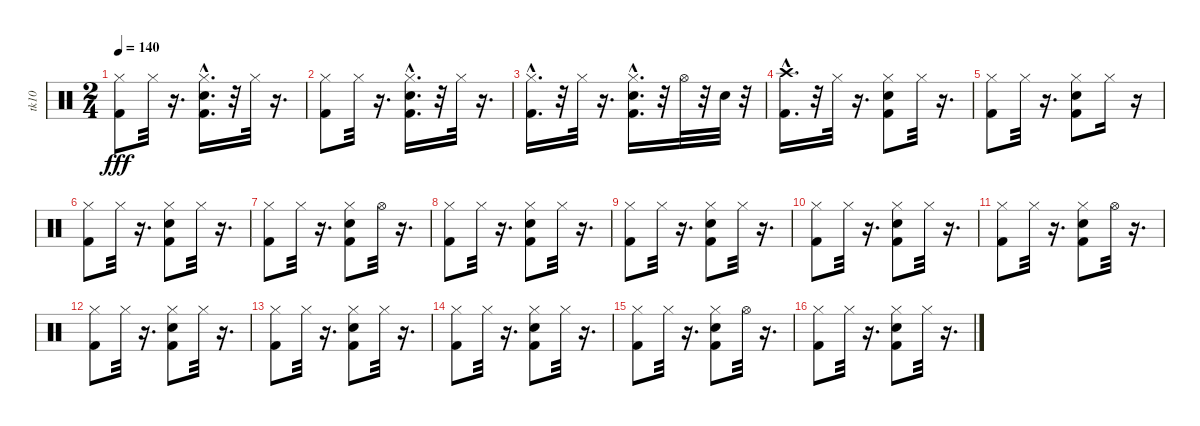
\track ("tk10" "tk10") {instrument percussion}
\staff {score}
\articulation defaults
\ts (2 4)
\tempo 140
\clef neutral
\ks c
("Kick (hit) 2" "Hi-Hat (closed)").8{dy fff} "Hi-Hat (closed)".32 r.16{d} ("Kick (hit) 2"{hac} "Hi-Hat (closed)" "Snare (hit) 2"{hac}).16{d} r.32 "Hi-Hat (closed)".32 r.16{d} |
("Kick (hit) 2" "Hi-Hat (closed)").8 "Hi-Hat (closed)".32 r.16{d} ("Kick (hit) 2"{hac} "Hi-Hat (closed)" "Snare (hit) 2"{hac}).16{d} r.32 "Hi-Hat (closed)".32 r.16{d} |
("Kick (hit) 2"{hac} "Hi-Hat (closed)").16{d} r.32 "Hi-Hat (closed)".32 r.16{d} ("Hi-Hat (closed)" "Snare (hit) 2"{hac} "Kick (hit) 2"{hac}).16{d} r.32 "Hi-Hat (open)".32 r.32 "Snare (hit) 2".32 r.32 |
("Kick (hit) 2"{hac} "Crash high (hit)").16{d} r.32 "Hi-Hat (closed)".32 r.16{d} ("Kick (hit) 2" "Snare (hit) 2" "Hi-Hat (closed)").8 "Hi-Hat (closed)".32 r.16{d} |
("Kick (hit) 2" "Hi-Hat (closed)").8 "Hi-Hat (closed)".32 r.16{d} ("Kick (hit) 2" "Hi-Hat (closed)" "Snare (hit) 2").8 "Hi-Hat (closed)".16 r.16 |
("Kick (hit) 2" "Hi-Hat (closed)").8 "Hi-Hat (closed)".32 r.16{d} ("Snare (hit) 2" "Kick (hit) 2" "Hi-Hat (closed)").8 "Hi-Hat (closed)".32 r.16{d} |
("Kick (hit) 2" "Hi-Hat (closed)").8 "Hi-Hat (closed)".32 r.16{d} ("Kick (hit) 2" "Snare (hit) 2" "Hi-Hat (closed)").8 "Hi-Hat (open)".32 r.16{d} |
("Kick (hit) 2" "Hi-Hat (closed)").8 "Hi-Hat (closed)".32 r.16{d} ("Snare (hit) 2" "Kick (hit) 2" "Hi-Hat (closed)").8 "Hi-Hat (closed)".32 r.16{d} |
("Kick (hit) 2" "Hi-Hat (closed)").8 "Hi-Hat (closed)".32 r.16{d} ("Snare (hit) 2" "Kick (hit) 2" "Hi-Hat (closed)").8 "Hi-Hat (closed)".32 r.16{d} |
("Kick (hit) 2" "Hi-Hat (closed)").8 "Hi-Hat (closed)".32 r.16{d} ("Snare (hit) 2" "Kick (hit) 2" "Hi-Hat (closed)").8 "Hi-Hat (closed)".32 r.16{d} |
("Kick (hit) 2" "Hi-Hat (closed)").8 "Hi-Hat (closed)".32 r.16{d} ("Snare (hit) 2" "Kick (hit) 2" "Hi-Hat (closed)").8 "Hi-Hat (open)".32 r.16{d} |
("Kick (hit) 2" "Hi-Hat (closed)").8 "Hi-Hat (closed)".32 r.16{d} ("Snare (hit) 2" "Kick (hit) 2" "Hi-Hat (closed)").8 "Hi-Hat (closed)".32 r.16{d} |
("Kick (hit) 2" "Hi-Hat (closed)").8 "Hi-Hat (closed)".32 r.16{d} ("Snare (hit) 2" "Kick (hit) 2" "Hi-Hat (closed)").8 "Hi-Hat (closed)".32 r.16{d} |
("Kick (hit) 2" "Hi-Hat (closed)").8 "Hi-Hat (closed)".32 r.16{d} ("Snare (hit) 2" "Kick (hit) 2" "Hi-Hat (closed)").8 "Hi-Hat (closed)".32 r.16{d} |
("Kick (hit) 2" "Hi-Hat (closed)").8 "Hi-Hat (closed)".32 r.16{d} ("Hi-Hat (closed)" "Snare (hit) 2" "Kick (hit) 2").8 "Hi-Hat (open)".32 r.16{d} |
("Kick (hit) 2" "Hi-Hat (closed)").8 "Hi-Hat (closed)".32 r.16{d} ("Snare (hit) 2" "Kick (hit) 2" "Hi-Hat (closed)").8 "Hi-Hat (closed)".32 r.16{d}
